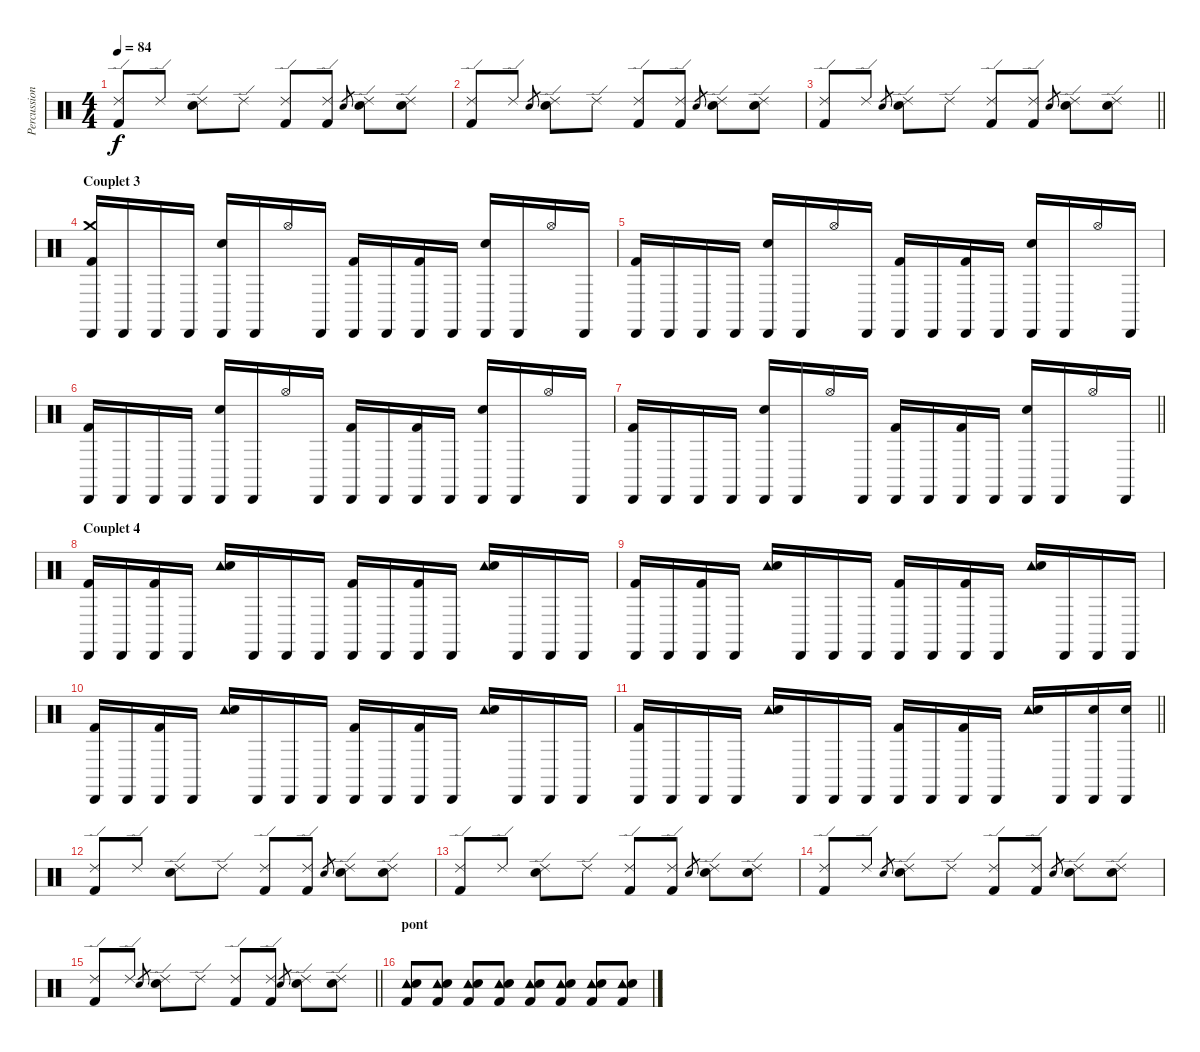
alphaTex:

\track ("Percussions" "Percussion") {instrument percussion}
\staff
\articulation defaults
\ts (4 4)
\tempo 84
\clef neutral
\ks c
("Ride (edge) 2" "Kick (hit) 2").8{dy f} "Ride (edge) 2".8 ("Ride (edge) 2" "Electric Snare (hit)").8 "Ride (edge) 2".8 ("Ride (edge) 2" "Kick (hit) 2").8 ("Ride (edge) 2" "Kick (hit) 2").8 "Electric Snare (hit)".8{gr} ("Ride (edge) 2" "Electric Snare (hit)").8 ("Ride (edge) 2" "Electric Snare (hit)").8 |
("Ride (edge) 2" "Kick (hit) 2").8 "Ride (edge) 2".8 "Electric Snare (hit)".8{gr} ("Ride (edge) 2" "Electric Snare (hit)").8 "Ride (edge) 2".8 ("Ride (edge) 2" "Kick (hit) 2").8 ("Ride (edge) 2" "Kick (hit) 2").8 "Electric Snare (hit)".8{gr} ("Ride (edge) 2" "Electric Snare (hit)").8 ("Ride (edge) 2" "Electric Snare (hit)").8 |
\barLineRight lightlight
("Ride (edge) 2" "Kick (hit) 2").8 "Ride (edge) 2".8 "Electric Snare (hit)".8{gr} ("Ride (edge) 2" "Electric Snare (hit)").8 "Ride (edge) 2".8 ("Ride (edge) 2" "Kick (hit) 2").8 ("Ride (edge) 2" "Kick (hit) 2").8 "Electric Snare (hit)".8{gr} ("Ride (edge) 2" "Electric Snare (hit)").8 ("Ride (edge) 2" "Electric Snare (hit)").8 |
\section ("" "Couplet 3")
("Cabasa (hit)" "Crash medium (hit)" "Kick (hit) 2").16 "Cabasa (hit)".16 "Cabasa (hit)".16 "Cabasa (hit)".16 ("Cabasa (hit)" "Electric Snare (hit)").16 "Cabasa (hit)".16 "Hi-Hat (open)".16 "Cabasa (hit)".16 ("Cabasa (hit)" "Kick (hit) 2").16 "Cabasa (hit)".16 ("Cabasa (hit)" "Kick (hit) 2").16 "Cabasa (hit)".16 ("Cabasa (hit)" "Electric Snare (hit)").16 "Cabasa (hit)".16 "Hi-Hat (open)".16 "Cabasa (hit)".16 |
("Cabasa (hit)" "Kick (hit) 2").16 "Cabasa (hit)".16 "Cabasa (hit)".16 "Cabasa (hit)".16 ("Cabasa (hit)" "Electric Snare (hit)").16 "Cabasa (hit)".16 "Hi-Hat (open)".16 "Cabasa (hit)".16 ("Cabasa (hit)" "Kick (hit) 2").16 "Cabasa (hit)".16 ("Cabasa (hit)" "Kick (hit) 2").16 "Cabasa (hit)".16 ("Cabasa (hit)" "Electric Snare (hit)").16 "Cabasa (hit)".16 "Hi-Hat (open)".16 "Cabasa (hit)".16 |
("Cabasa (hit)" "Kick (hit) 2").16 "Cabasa (hit)".16 "Cabasa (hit)".16 "Cabasa (hit)".16 ("Cabasa (hit)" "Electric Snare (hit)").16 "Cabasa (hit)".16 "Hi-Hat (open)".16 "Cabasa (hit)".16 ("Cabasa (hit)" "Kick (hit) 2").16 "Cabasa (hit)".16 ("Cabasa (hit)" "Kick (hit) 2").16 "Cabasa (hit)".16 ("Cabasa (hit)" "Electric Snare (hit)").16 "Cabasa (hit)".16 "Hi-Hat (open)".16 "Cabasa (hit)".16 |
\barLineRight lightlight
("Cabasa (hit)" "Kick (hit) 2").16 "Cabasa (hit)".16 "Cabasa (hit)".16 "Cabasa (hit)".16 ("Cabasa (hit)" "Electric Snare (hit)").16 "Cabasa (hit)".16 "Hi-Hat (open)".16 "Cabasa (hit)".16 ("Cabasa (hit)" "Kick (hit) 2").16 "Cabasa (hit)".16 ("Cabasa (hit)" "Kick (hit) 2").16 "Cabasa (hit)".16 ("Cabasa (hit)" "Electric Snare (hit)").16 "Cabasa (hit)".16 "Hi-Hat (open)".16 "Cabasa (hit)".16 |
\section ("" "Couplet 4")
("Cabasa (hit)" "Kick (hit) 2").16 "Cabasa (hit)".16 ("Cabasa (hit)" "Kick (hit) 2").16 "Cabasa (hit)".16 ("Tambourine (hit)" "Electric Snare (hit)").16 "Cabasa (hit)".16 "Cabasa (hit)".16 "Cabasa (hit)".16 ("Cabasa (hit)" "Kick (hit) 2").16 "Cabasa (hit)".16 ("Cabasa (hit)" "Kick (hit) 2").16 "Cabasa (hit)".16 ("Tambourine (hit)" "Electric Snare (hit)").16 "Cabasa (hit)".16 "Cabasa (hit)".16 "Cabasa (hit)".16 |
("Cabasa (hit)" "Kick (hit) 2").16 "Cabasa (hit)".16 ("Cabasa (hit)" "Kick (hit) 2").16 "Cabasa (hit)".16 ("Tambourine (hit)" "Electric Snare (hit)").16 "Cabasa (hit)".16 "Cabasa (hit)".16 "Cabasa (hit)".16 ("Cabasa (hit)" "Kick (hit) 2").16 "Cabasa (hit)".16 ("Cabasa (hit)" "Kick (hit) 2").16 "Cabasa (hit)".16 ("Tambourine (hit)" "Electric Snare (hit)").16 "Cabasa (hit)".16 "Cabasa (hit)".16 "Cabasa (hit)".16 |
("Cabasa (hit)" "Kick (hit) 2").16 "Cabasa (hit)".16 ("Cabasa (hit)" "Kick (hit) 2").16 "Cabasa (hit)".16 ("Tambourine (hit)" "Electric Snare (hit)").16 "Cabasa (hit)".16 "Cabasa (hit)".16 "Cabasa (hit)".16 ("Cabasa (hit)" "Kick (hit) 2").16 "Cabasa (hit)".16 ("Cabasa (hit)" "Kick (hit) 2").16 "Cabasa (hit)".16 ("Tambourine (hit)" "Electric Snare (hit)").16 "Cabasa (hit)".16 "Cabasa (hit)".16 "Cabasa (hit)".16 |
\barLineRight lightlight
("Cabasa (hit)" "Kick (hit) 2").16 "Cabasa (hit)".16 "Cabasa (hit)".16 "Cabasa (hit)".16 ("Tambourine (hit)" "Electric Snare (hit)").16 "Cabasa (hit)".16 "Cabasa (hit)".16 "Cabasa (hit)".16 ("Cabasa (hit)" "Kick (hit) 2").16 "Cabasa (hit)".16 ("Cabasa (hit)" "Kick (hit) 2").16 "Cabasa (hit)".16 ("Tambourine (hit)" "Electric Snare (hit)").16 "Cabasa (hit)".16 ("Cabasa (hit)" "Electric Snare (hit)").16 ("Cabasa (hit)" "Electric Snare (hit)").16 |
("Ride (edge) 2" "Kick (hit) 2").8 "Ride (edge) 2".8 ("Ride (edge) 2" "Electric Snare (hit)").8 "Ride (edge) 2".8 ("Ride (edge) 2" "Kick (hit) 2").8 ("Ride (edge) 2" "Kick (hit) 2").8 "Electric Snare (hit)".8{gr} ("Ride (edge) 2" "Electric Snare (hit)").8 ("Ride (edge) 2" "Electric Snare (hit)").8 |
("Ride (edge) 2" "Kick (hit) 2").8 "Ride (edge) 2".8 ("Ride (edge) 2" "Electric Snare (hit)").8 "Ride (edge) 2".8 ("Ride (edge) 2" "Kick (hit) 2").8 ("Ride (edge) 2" "Kick (hit) 2").8 "Electric Snare (hit)".8{gr} ("Ride (edge) 2" "Electric Snare (hit)").8 ("Ride (edge) 2" "Electric Snare (hit)").8 |
("Ride (edge) 2" "Kick (hit) 2").8 "Ride (edge) 2".8 "Electric Snare (hit)".8{gr} ("Ride (edge) 2" "Electric Snare (hit)").8 "Ride (edge) 2".8 ("Ride (edge) 2" "Kick (hit) 2").8 ("Ride (edge) 2" "Kick (hit) 2").8 "Electric Snare (hit)".8{gr} ("Ride (edge) 2" "Electric Snare (hit)").8 ("Ride (edge) 2" "Electric Snare (hit)").8 |
\barLineRight lightlight
("Ride (edge) 2" "Kick (hit) 2").8 "Ride (edge) 2".8 "Electric Snare (hit)".8{gr} ("Ride (edge) 2" "Electric Snare (hit)").8 "Ride (edge) 2".8 ("Ride (edge) 2" "Kick (hit) 2").8 ("Ride (edge) 2" "Kick (hit) 2").8 "Electric Snare (hit)".8{gr} ("Ride (edge) 2" "Electric Snare (hit)").8 ("Ride (edge) 2" "Electric Snare (hit)").8 |
\section ("" "pont")
("Tambourine (hit)" "Electric Snare (hit)" "Kick (hit) 2").8 ("Tambourine (hit)" "Electric Snare (hit)" "Kick (hit) 2").8 ("Tambourine (hit)" "Electric Snare (hit)" "Kick (hit) 2").8 ("Tambourine (hit)" "Electric Snare (hit)" "Kick (hit) 2").8 ("Tambourine (hit)" "Electric Snare (hit)" "Kick (hit) 2").8 ("Tambourine (hit)" "Electric Snare (hit)" "Kick (hit) 2").8 ("Tambourine (hit)" "Electric Snare (hit)" "Kick (hit) 2").8 ("Tambourine (hit)" "Electric Snare (hit)" "Kick (hit) 2").8
